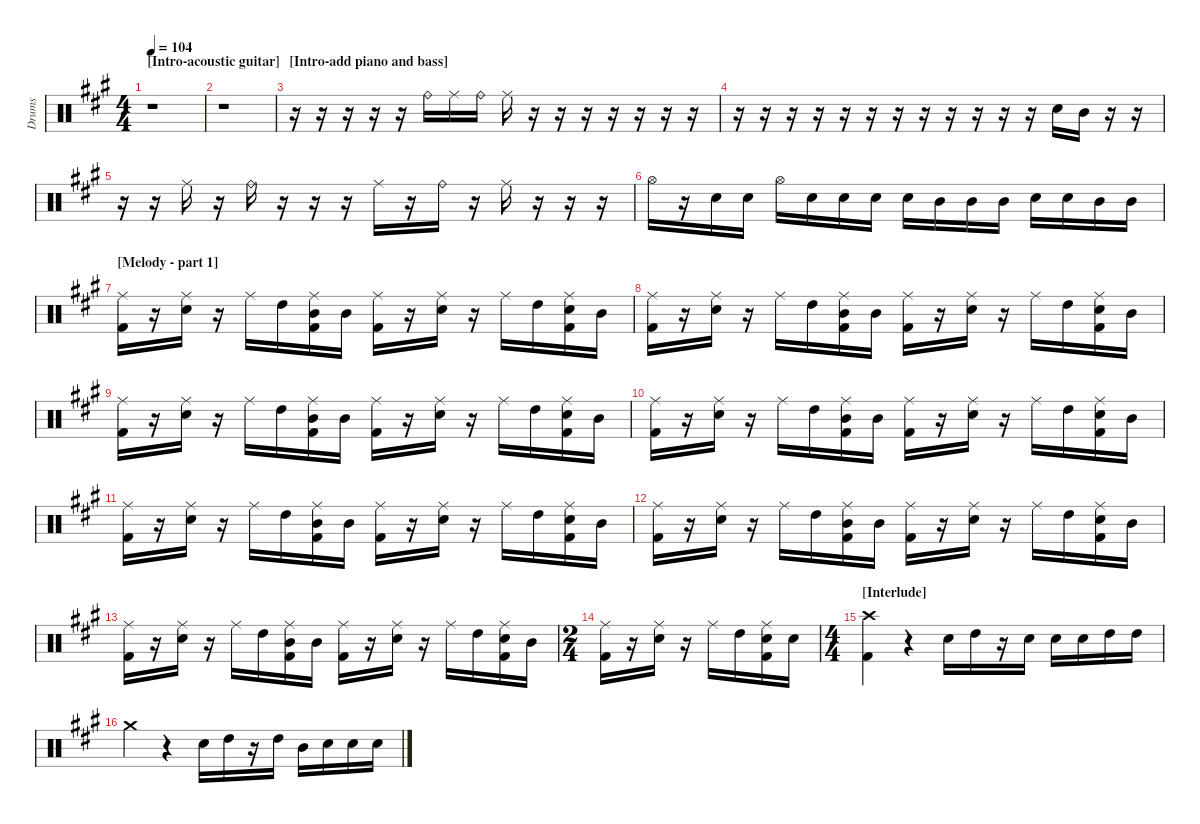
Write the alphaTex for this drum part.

\hideDynamics
\bracketExtendMode nobrackets
\otherSystemsTrackNameOrientation horizontal
\track ("Drumkit" "Drums") {instrument percussion}
\staff {score}
\articulation defaults
\ts (4 4)
\beaming (8 2 2 2 2)
\section ("" "[Intro-acoustic guitar]")
\tempo 104
\clef neutral
\ks a
r.1{dy f beam Down} |
r.1{beam Down} |
\section ("" "[Intro-add piano and bass]")
r.16{beam Down} r.16{beam Down} r.16{beam Down} r.16{beam Down} r.16{beam Down} "Ride (bell)"{acc forcenatural}.16{beam Down} "Ride (middle)"{acc forcenatural}.16{beam Down} "Ride (bell)"{acc forcenatural}.16{beam Down} "Ride (middle)"{acc forcenatural}.16{beam Down} r.16{beam Down} r.16{beam Down} r.16{beam Down} r.16{beam Down} r.16{beam Down} r.16{beam Down} r.16{beam Down} |
r.16{beam Down} r.16{beam Down} r.16{beam Down} r.16{beam Down} r.16{beam Down} r.16{beam Down} r.16{beam Down} r.16{beam Down} r.16{beam Down} r.16{beam Down} r.16{beam Down} r.16{beam Down} "Snare (hit) 2"{acc forcenatural}.16{beam Down} "Mid Tom (hit)"{acc forcenatural}.16{beam Down} r.16{beam Down} r.16{beam Down} |
r.16{beam Down} r.16{beam Down} "Ride (middle)"{acc forcenatural}.16{beam Down} r.16{beam Down} "Ride (bell)"{acc forcenatural}.16{beam Down} r.16{beam Down} r.16{beam Down} r.16{beam Down} "Ride (middle)"{acc forcenatural}.16{beam Down} r.16{beam Down} "Ride (bell)"{acc forcenatural}.16{beam Down} r.16{beam Down} "Ride (middle)"{acc forcenatural}.16{beam Down} r.16{beam Down} r.16{beam Down} r.16{beam Down} |
"Hi-Hat (open)"{acc forcenatural}.16{beam Down} r.16{beam Down} "Snare (hit) 2"{acc forcenatural}.16{beam Down} "Snare (hit) 2"{acc forcenatural}.16{beam Down} "Hi-Hat (open)"{acc forcenatural}.16{beam Down} "Snare (hit) 2"{acc forcenatural}.16{beam Down} "Snare (hit) 2"{acc forcenatural}.16{beam Down} "Snare (hit) 2"{acc forcenatural}.16{beam Down} "Snare (hit) 2"{acc forcenatural}.16{beam Down} "Mid Tom (hit)"{acc forcenatural}.16{beam Down} "Mid Tom (hit)"{acc forcenatural}.16{beam Down} "Mid Tom (hit)"{acc forcenatural}.16{beam Down} "Snare (hit) 2"{acc forcenatural}.16{beam Down} "Snare (hit) 2"{acc forcenatural}.16{beam Down} "Mid Tom (hit)"{acc forcenatural}.16{beam Down} "Mid Tom (hit)"{acc forcenatural}.16{beam Down} |
\section ("" "[Melody - part 1]")
("Ride (middle)"{acc forcenatural} "Kick (hit) 2"{acc forcenatural}).16{beam Down} r.16{beam Down} ("Ride (middle)"{acc forcenatural} "Snare (hit) 2"{acc forcenatural}).16{beam Down} r.16{beam Down} "Ride (middle)"{acc forcenatural}.16{beam Down} "High Tom (hit)"{acc forcenatural}.16{beam Down} ("Ride (middle)"{acc forcenatural} "Mid Tom (hit)"{acc forcenatural} "Kick (hit) 2"{acc forcenatural}).16{beam Down} "Mid Tom (hit)"{acc forcenatural}.16{beam Down} ("Ride (middle)"{acc forcenatural} "Kick (hit) 2"{acc forcenatural}).16{beam Down} r.16{beam Down} ("Ride (middle)"{acc forcenatural} "Snare (hit) 2"{acc forcenatural}).16{beam Down} r.16{beam Down} "Ride (middle)"{acc forcenatural}.16{beam Down} "High Tom (hit)"{acc forcenatural}.16{beam Down} ("Ride (middle)"{acc forcenatural} "Snare (hit) 2"{acc forcenatural} "Kick (hit) 2"{acc forcenatural}).16{beam Down} "Mid Tom (hit)"{acc forcenatural}.16{beam Down} |
("Ride (middle)"{acc forcenatural} "Kick (hit) 2"{acc forcenatural}).16{beam Down} r.16{beam Down} ("Ride (middle)"{acc forcenatural} "Snare (hit) 2"{acc forcenatural}).16{beam Down} r.16{beam Down} "Ride (middle)"{acc forcenatural}.16{beam Down} "High Tom (hit)"{acc forcenatural}.16{beam Down} ("Ride (middle)"{acc forcenatural} "Mid Tom (hit)"{acc forcenatural} "Kick (hit) 2"{acc forcenatural}).16{beam Down} "Mid Tom (hit)"{acc forcenatural}.16{beam Down} ("Ride (middle)"{acc forcenatural} "Kick (hit) 2"{acc forcenatural}).16{beam Down} r.16{beam Down} ("Ride (middle)"{acc forcenatural} "Snare (hit) 2"{acc forcenatural}).16{beam Down} r.16{beam Down} "Ride (middle)"{acc forcenatural}.16{beam Down} "High Tom (hit)"{acc forcenatural}.16{beam Down} ("Ride (middle)"{acc forcenatural} "Snare (hit) 2"{acc forcenatural} "Kick (hit) 2"{acc forcenatural}).16{beam Down} "Mid Tom (hit)"{acc forcenatural}.16{beam Down} |
("Ride (middle)"{acc forcenatural} "Kick (hit) 2"{acc forcenatural}).16{beam Down} r.16{beam Down} ("Ride (middle)"{acc forcenatural} "Snare (hit) 2"{acc forcenatural}).16{beam Down} r.16{beam Down} "Ride (middle)"{acc forcenatural}.16{beam Down} "High Tom (hit)"{acc forcenatural}.16{beam Down} ("Ride (middle)"{acc forcenatural} "Mid Tom (hit)"{acc forcenatural} "Kick (hit) 2"{acc forcenatural}).16{beam Down} "Mid Tom (hit)"{acc forcenatural}.16{beam Down} ("Ride (middle)"{acc forcenatural} "Kick (hit) 2"{acc forcenatural}).16{beam Down} r.16{beam Down} ("Ride (middle)"{acc forcenatural} "Snare (hit) 2"{acc forcenatural}).16{beam Down} r.16{beam Down} "Ride (middle)"{acc forcenatural}.16{beam Down} "High Tom (hit)"{acc forcenatural}.16{beam Down} ("Ride (middle)"{acc forcenatural} "Snare (hit) 2"{acc forcenatural} "Kick (hit) 2"{acc forcenatural}).16{beam Down} "Mid Tom (hit)"{acc forcenatural}.16{beam Down} |
("Ride (middle)"{acc forcenatural} "Kick (hit) 2"{acc forcenatural}).16{beam Down} r.16{beam Down} ("Ride (middle)"{acc forcenatural} "Snare (hit) 2"{acc forcenatural}).16{beam Down} r.16{beam Down} "Ride (middle)"{acc forcenatural}.16{beam Down} "High Tom (hit)"{acc forcenatural}.16{beam Down} ("Ride (middle)"{acc forcenatural} "Mid Tom (hit)"{acc forcenatural} "Kick (hit) 2"{acc forcenatural}).16{beam Down} "Mid Tom (hit)"{acc forcenatural}.16{beam Down} ("Ride (middle)"{acc forcenatural} "Kick (hit) 2"{acc forcenatural}).16{beam Down} r.16{beam Down} ("Ride (middle)"{acc forcenatural} "Snare (hit) 2"{acc forcenatural}).16{beam Down} r.16{beam Down} "Ride (middle)"{acc forcenatural}.16{beam Down} "High Tom (hit)"{acc forcenatural}.16{beam Down} ("Ride (middle)"{acc forcenatural} "Snare (hit) 2"{acc forcenatural} "Kick (hit) 2"{acc forcenatural}).16{beam Down} "Mid Tom (hit)"{acc forcenatural}.16{beam Down} |
("Ride (middle)"{acc forcenatural} "Kick (hit) 2"{acc forcenatural}).16{beam Down} r.16{beam Down} ("Ride (middle)"{acc forcenatural} "Snare (hit) 2"{acc forcenatural}).16{beam Down} r.16{beam Down} "Ride (middle)"{acc forcenatural}.16{beam Down} "High Tom (hit)"{acc forcenatural}.16{beam Down} ("Ride (middle)"{acc forcenatural} "Mid Tom (hit)"{acc forcenatural} "Kick (hit) 2"{acc forcenatural}).16{beam Down} "Mid Tom (hit)"{acc forcenatural}.16{beam Down} ("Ride (middle)"{acc forcenatural} "Kick (hit) 2"{acc forcenatural}).16{beam Down} r.16{beam Down} ("Ride (middle)"{acc forcenatural} "Snare (hit) 2"{acc forcenatural}).16{beam Down} r.16{beam Down} "Ride (middle)"{acc forcenatural}.16{beam Down} "High Tom (hit)"{acc forcenatural}.16{beam Down} ("Ride (middle)"{acc forcenatural} "Snare (hit) 2"{acc forcenatural} "Kick (hit) 2"{acc forcenatural}).16{beam Down} "Mid Tom (hit)"{acc forcenatural}.16{beam Down} |
("Ride (middle)"{acc forcenatural} "Kick (hit) 2"{acc forcenatural}).16{beam Down} r.16{beam Down} ("Ride (middle)"{acc forcenatural} "Snare (hit) 2"{acc forcenatural}).16{beam Down} r.16{beam Down} "Ride (middle)"{acc forcenatural}.16{beam Down} "High Tom (hit)"{acc forcenatural}.16{beam Down} ("Ride (middle)"{acc forcenatural} "Mid Tom (hit)"{acc forcenatural} "Kick (hit) 2"{acc forcenatural}).16{beam Down} "Mid Tom (hit)"{acc forcenatural}.16{beam Down} ("Ride (middle)"{acc forcenatural} "Kick (hit) 2"{acc forcenatural}).16{beam Down} r.16{beam Down} ("Ride (middle)"{acc forcenatural} "Snare (hit) 2"{acc forcenatural}).16{beam Down} r.16{beam Down} "Ride (middle)"{acc forcenatural}.16{beam Down} "High Tom (hit)"{acc forcenatural}.16{beam Down} ("Ride (middle)"{acc forcenatural} "Snare (hit) 2"{acc forcenatural} "Kick (hit) 2"{acc forcenatural}).16{beam Down} "Mid Tom (hit)"{acc forcenatural}.16{beam Down} |
("Ride (middle)"{acc forcenatural} "Kick (hit) 2"{acc forcenatural}).16{beam Down} r.16{beam Down} ("Ride (middle)"{acc forcenatural} "Snare (hit) 2"{acc forcenatural}).16{beam Down} r.16{beam Down} "Ride (middle)"{acc forcenatural}.16{beam Down} "High Tom (hit)"{acc forcenatural}.16{beam Down} ("Ride (middle)"{acc forcenatural} "Mid Tom (hit)"{acc forcenatural} "Kick (hit) 2"{acc forcenatural}).16{beam Down} "Mid Tom (hit)"{acc forcenatural}.16{beam Down} ("Ride (middle)"{acc forcenatural} "Kick (hit) 2"{acc forcenatural}).16{beam Down} r.16{beam Down} ("Ride (middle)"{acc forcenatural} "Snare (hit) 2"{acc forcenatural}).16{beam Down} r.16{beam Down} "Ride (middle)"{acc forcenatural}.16{beam Down} "High Tom (hit)"{acc forcenatural}.16{beam Down} ("Ride (middle)"{acc forcenatural} "Snare (hit) 2"{acc forcenatural} "Kick (hit) 2"{acc forcenatural}).16{beam Down} "Mid Tom (hit)"{acc forcenatural}.16{beam Down} |
\ts (2 4)
("Ride (middle)"{acc forcenatural} "Kick (hit) 2"{acc forcenatural}).16{beam Down} r.16{beam Down} ("Ride (middle)"{acc forcenatural} "Snare (hit) 2"{acc forcenatural}).16{beam Down} r.16{beam Down} "Ride (middle)"{acc forcenatural}.16{beam Down} "High Tom (hit)"{acc forcenatural}.16{beam Down} ("Ride (middle)"{acc forcenatural} "Snare (hit) 2"{acc forcenatural} "Kick (hit) 2"{acc forcenatural}).16{beam Down} "Snare (hit) 2"{acc forcenatural}.16{beam Down} |
\ts (4 4)
\section ("" "[Interlude] ")
("Crash high (hit)"{acc forcenatural} "Kick (hit) 2"{acc forcenatural}).4{beam Down} r.4{beam Down} "Snare (hit) 2"{acc forcenatural}.16{beam Down} "High Tom (hit)"{acc forcenatural}.16{beam Down} r.16{beam Down} "Snare (hit) 2"{acc forcenatural}.16{beam Down} "Snare (hit) 2"{acc forcenatural}.16{beam Down} "Snare (hit) 2"{acc forcenatural}.16{beam Down} "High Tom (hit)"{acc forcenatural}.16{beam Down} "High Tom (hit)"{acc forcenatural}.16{beam Down} |
"Crash medium (hit)"{acc forcenatural}.4{beam Down} r.4{beam Down} "Snare (hit) 2"{acc forcenatural}.16{beam Down} "High Tom (hit)"{acc forcenatural}.16{beam Down} r.16{beam Down} "High Tom (hit)"{acc forcenatural}.16{beam Down} "Mid Tom (hit)"{acc forcenatural}.16{beam Down} "Snare (hit) 2"{acc forcenatural}.16{beam Down} "Snare (hit) 2"{acc forcenatural}.16{beam Down} "Snare (hit) 2"{acc forcenatural}.16{beam Down}
